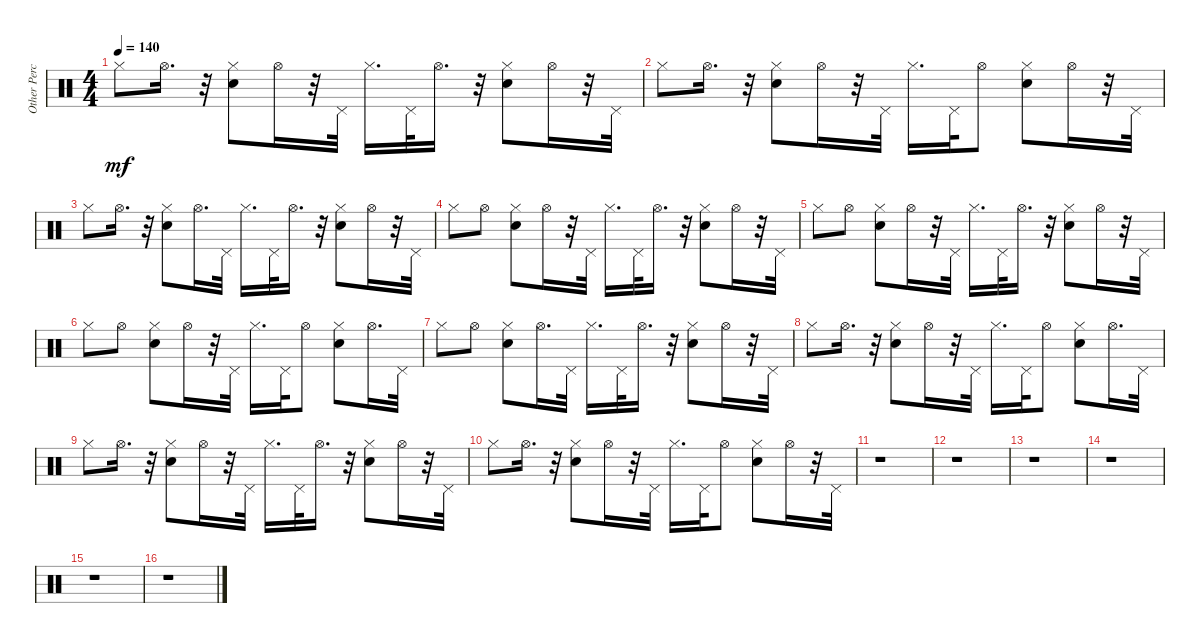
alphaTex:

\track ("Other Percussion" "Other Perc") {instrument percussion}
\staff {score}
\articulation defaults
\ts (4 4)
\tempo 140
\clef neutral
\ks c "Hi-Hat (closed)".8{dy mf} "Hi-Hat (open)".16{d}
r.32 ("Hand Clap (hit)" "Hi-Hat (closed)").8 "Hi-Hat (open)".16 r.32 "Pedal Hi-Hat (hit)".32 "Hi-Hat (closed)".16{d} "Pedal Hi-Hat (hit)".32 "Hi-Hat (open)".16{d} r.32 ("Hand Clap (hit)" "Hi-Hat (closed)").8 "Hi-Hat (open)".16 r.32 "Pedal Hi-Hat (hit)".32 |
"Hi-Hat (closed)".8 "Hi-Hat (open)".16{d} r.32 ("Hand Clap (hit)" "Hi-Hat (closed)").8 "Hi-Hat (open)".16 r.32 "Pedal Hi-Hat (hit)".32 "Hi-Hat (closed)".16{d} "Pedal Hi-Hat (hit)".32 "Hi-Hat (open)".8 ("Hand Clap (hit)" "Hi-Hat (closed)").8 "Hi-Hat (open)".16 r.32 "Pedal Hi-Hat (hit)".32 |
"Hi-Hat (closed)".8 "Hi-Hat (open)".16{d} r.32 ("Hand Clap (hit)" "Hi-Hat (closed)").8 "Hi-Hat (open)".16{d} "Pedal Hi-Hat (hit)".32 "Hi-Hat (closed)".16{d} "Pedal Hi-Hat (hit)".32 "Hi-Hat (open)".16{d} r.32 ("Hand Clap (hit)" "Hi-Hat (closed)").8 "Hi-Hat (open)".16 r.32 "Pedal Hi-Hat (hit)".32 |
"Hi-Hat (closed)".8 "Hi-Hat (open)".8 ("Hand Clap (hit)" "Hi-Hat (closed)").8 "Hi-Hat (open)".16 r.32 "Pedal Hi-Hat (hit)".32 "Hi-Hat (closed)".16{d} "Pedal Hi-Hat (hit)".32 "Hi-Hat (open)".16{d} r.32 ("Hand Clap (hit)" "Hi-Hat (closed)").8 "Hi-Hat (open)".16 r.32 "Pedal Hi-Hat (hit)".32 |
"Hi-Hat (closed)".8 "Hi-Hat (open)".8 ("Hand Clap (hit)" "Hi-Hat (closed)").8 "Hi-Hat (open)".16 r.32 "Pedal Hi-Hat (hit)".32 "Hi-Hat (closed)".16{d} "Pedal Hi-Hat (hit)".32 "Hi-Hat (open)".16{d} r.32 ("Hand Clap (hit)" "Hi-Hat (closed)").8 "Hi-Hat (open)".16 r.32 "Pedal Hi-Hat (hit)".32 |
"Hi-Hat (closed)".8 "Hi-Hat (open)".8 ("Hand Clap (hit)" "Hi-Hat (closed)").8 "Hi-Hat (open)".16 r.32 "Pedal Hi-Hat (hit)".32 "Hi-Hat (closed)".16{d} "Pedal Hi-Hat (hit)".32 "Hi-Hat (open)".8 ("Hand Clap (hit)" "Hi-Hat (closed)").8 "Hi-Hat (open)".16{d} "Pedal Hi-Hat (hit)".32 |
"Hi-Hat (closed)".8 "Hi-Hat (open)".8 ("Hand Clap (hit)" "Hi-Hat (closed)").8 "Hi-Hat (open)".16{d} "Pedal Hi-Hat (hit)".32 "Hi-Hat (closed)".16{d} "Pedal Hi-Hat (hit)".32 "Hi-Hat (open)".16{d} r.32 ("Hand Clap (hit)" "Hi-Hat (closed)").8 "Hi-Hat (open)".16 r.32 "Pedal Hi-Hat (hit)".32 |
"Hi-Hat (closed)".8 "Hi-Hat (open)".16{d} r.32 ("Hand Clap (hit)" "Hi-Hat (closed)").8 "Hi-Hat (open)".16 r.32 "Pedal Hi-Hat (hit)".32 "Hi-Hat (closed)".16{d} "Pedal Hi-Hat (hit)".32 "Hi-Hat (open)".8 ("Hand Clap (hit)" "Hi-Hat (closed)").8 "Hi-Hat (open)".16{d} "Pedal Hi-Hat (hit)".32 |
"Hi-Hat (closed)".8 "Hi-Hat (open)".16{d} r.32 ("Hand Clap (hit)" "Hi-Hat (closed)").8 "Hi-Hat (open)".16 r.32 "Pedal Hi-Hat (hit)".32 "Hi-Hat (closed)".16{d} "Pedal Hi-Hat (hit)".32 "Hi-Hat (open)".16{d} r.32 ("Hand Clap (hit)" "Hi-Hat (closed)").8 "Hi-Hat (open)".16 r.32 "Pedal Hi-Hat (hit)".32 |
"Hi-Hat (closed)".8 "Hi-Hat (open)".16{d} r.32 ("Hand Clap (hit)" "Hi-Hat (closed)").8 "Hi-Hat (open)".16 r.32 "Pedal Hi-Hat (hit)".32 "Hi-Hat (closed)".16{d} "Pedal Hi-Hat (hit)".32 "Hi-Hat (open)".8 ("Hand Clap (hit)" "Hi-Hat (closed)").8 "Hi-Hat (open)".16 r.32 "Pedal Hi-Hat (hit)".32 |
r.1 |
r.1 |
r.1 |
r.1 |
r.1 |
r.1
